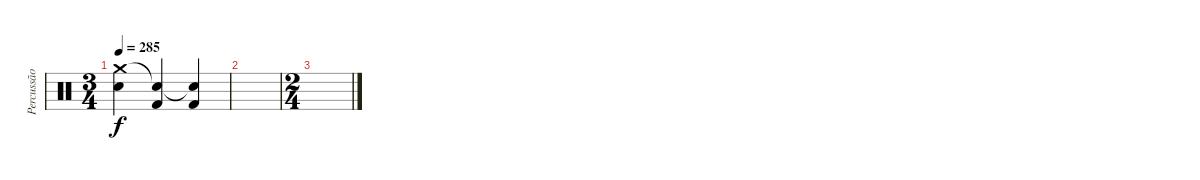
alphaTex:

\track ("Percussão" "Percussão") {instrument percussion}
\staff {score}
\articulation defaults
\ts (3 4)
\tempo 285
\clef neutral
\ks c
("Crash medium (hit)" "Electric Snare (hit)").4{dy f} ("Snare (hit)"{t} "Kick (hit) 2").4 ("Snare (hit)"{t} "Kick (hit) 2").4 |
|
\ts (2 4)
